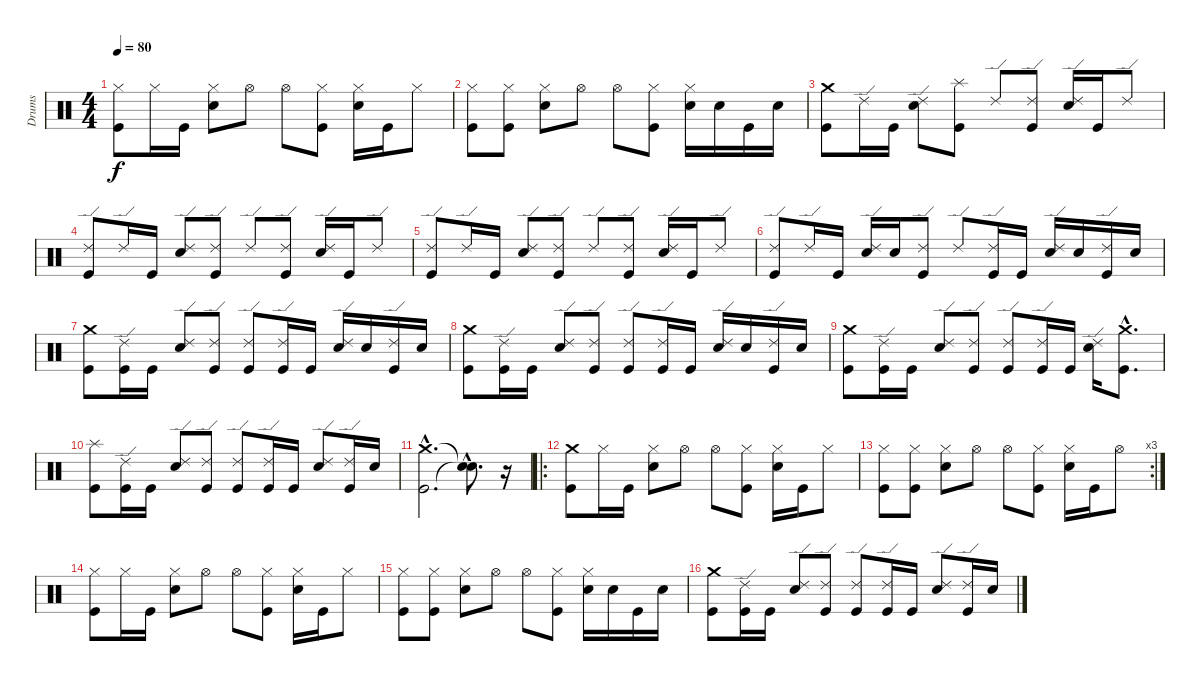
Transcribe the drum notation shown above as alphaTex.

\track ("Drums" "Drums") {instrument percussion}
\staff {score}
\articulation defaults
\ts (4 4)
\tempo 80
\clef neutral
\ks c
("Kick (hit)" "Hi-Hat (closed)").8{dy f} "Hi-Hat (closed)".16 "Kick (hit)".16 ("Electric Snare (hit)" "Hi-Hat (closed)").8 "Hi-Hat (open)".8 "Hi-Hat (open)".8 ("Kick (hit)" "Hi-Hat (closed)").8 ("Electric Snare (hit)" "Hi-Hat (closed)").16 "Kick (hit)".16 "Hi-Hat (closed)".8 |
("Kick (hit)" "Hi-Hat (closed)").8 ("Kick (hit)" "Hi-Hat (closed)").8 ("Electric Snare (hit)" "Hi-Hat (closed)").8 "Hi-Hat (open)".8 "Hi-Hat (open)".8 ("Kick (hit)" "Hi-Hat (closed)").8 ("Electric Snare (hit)" "Hi-Hat (closed)").16 "Electric Snare (hit)".16 "Kick (hit)".16 "Electric Snare (hit)".16 |
("Kick (hit)" "Crash medium (hit)").8 "Ride (edge) 2".16 "Kick (hit)".16 ("Electric Snare (hit)" "Ride (edge) 2").8 ("Kick (hit)" "Splash (hit)").8 "Ride (edge) 2".8 ("Kick (hit)" "Ride (edge) 2").8 ("Electric Snare (hit)" "Ride (edge) 2").16 "Kick (hit)".16 "Ride (edge) 2".8 |
("Kick (hit)" "Ride (edge) 2").8 "Ride (edge) 2".16 "Kick (hit)".16 ("Electric Snare (hit)" "Ride (edge) 2").8 ("Kick (hit)" "Ride (edge) 2").8 "Ride (edge) 2".8 ("Kick (hit)" "Ride (edge) 2").8 ("Electric Snare (hit)" "Ride (edge) 2").16 "Kick (hit)".16 "Ride (edge) 2".8 |
("Kick (hit)" "Ride (edge) 2").8 "Ride (edge) 2".16 "Kick (hit)".16 ("Electric Snare (hit)" "Ride (edge) 2").8 ("Kick (hit)" "Ride (edge) 2").8 "Ride (edge) 2".8 ("Kick (hit)" "Ride (edge) 2").8 ("Electric Snare (hit)" "Ride (edge) 2").16 "Kick (hit)".16 "Ride (edge) 2".8 |
("Kick (hit)" "Ride (edge) 2").8 "Ride (edge) 2".16 "Kick (hit)".16 ("Electric Snare (hit)" "Ride (edge) 2").16 "Electric Snare (hit)".16 ("Kick (hit)" "Ride (edge) 2").8 "Ride (edge) 2".8 ("Kick (hit)" "Ride (edge) 2").16 "Kick (hit)".16 ("Electric Snare (hit)" "Ride (edge) 2").16 "Electric Snare (hit)".16 ("Kick (hit)" "Ride (edge) 2").16 "Electric Snare (hit)".16 |
("Kick (hit)" "Crash medium (hit)").8 ("Kick (hit)" "Ride (edge) 2").16 "Kick (hit)".16 ("Electric Snare (hit)" "Ride (edge) 2").8 ("Kick (hit)" "Ride (edge) 2").8 ("Kick (hit)" "Ride (edge) 2").8 ("Kick (hit)" "Ride (edge) 2").16 "Kick (hit)".16 ("Electric Snare (hit)" "Ride (edge) 2").16 "Electric Snare (hit)".16 ("Kick (hit)" "Ride (edge) 2").16 "Electric Snare (hit)".16 |
("Kick (hit)" "Crash medium (hit)").8 ("Kick (hit)" "Ride (edge) 2").16 "Kick (hit)".16 ("Electric Snare (hit)" "Ride (edge) 2").8 ("Kick (hit)" "Ride (edge) 2").8 ("Kick (hit)" "Ride (edge) 2").8 ("Kick (hit)" "Ride (edge) 2").16 "Kick (hit)".16 ("Electric Snare (hit)" "Ride (edge) 2").16 "Electric Snare (hit)".16 ("Kick (hit)" "Ride (edge) 2").16 "Electric Snare (hit)".16 |
("Kick (hit)" "Crash medium (hit)").8 ("Kick (hit)" "Ride (edge) 2").16 "Kick (hit)".16 ("Electric Snare (hit)" "Ride (edge) 2").8 ("Kick (hit)" "Ride (edge) 2").8 ("Kick (hit)" "Ride (edge) 2").8 ("Kick (hit)" "Ride (edge) 2").16 "Kick (hit)".16 ("Electric Snare (hit)" "Ride (edge) 2").16 ("Kick (hit)"{hac} "Crash medium (hit)"{hac}).8{d} |
("Kick (hit)" "Splash (hit)").8 ("Kick (hit)" "Ride (edge) 2").16 "Kick (hit)".16 ("Electric Snare (hit)" "Ride (edge) 2").8 ("Kick (hit)" "Ride (edge) 2").8 ("Kick (hit)" "Ride (edge) 2").8 ("Kick (hit)" "Ride (edge) 2").16 "Kick (hit)".16 ("Electric Snare (hit)" "Ride (edge) 2").8 ("Kick (hit)" "Ride (edge) 2").16 "Electric Snare (hit)".16 |
("Kick (hit)"{hac} "Crash medium (hit)"{hac}).2{d} ("Snare (hit)"{hac t} "Snare (hit)"{hac t}).8{d} r.16 |
\ro
("Kick (hit)" "Crash medium (hit)").8 "Hi-Hat (closed)".16 "Kick (hit)".16 ("Electric Snare (hit)" "Hi-Hat (closed)").8 "Hi-Hat (open)".8 "Hi-Hat (open)".8 ("Kick (hit)" "Hi-Hat (closed)").8 ("Electric Snare (hit)" "Hi-Hat (closed)").16 "Kick (hit)".16 "Hi-Hat (closed)".8 |
\rc 3
("Kick (hit)" "Hi-Hat (closed)").8 ("Kick (hit)" "Hi-Hat (closed)").8 ("Electric Snare (hit)" "Hi-Hat (closed)").8 "Hi-Hat (open)".8 "Hi-Hat (open)".8 ("Kick (hit)" "Hi-Hat (closed)").8 ("Electric Snare (hit)" "Hi-Hat (closed)").16 "Kick (hit)".16 "Hi-Hat (open)".8 |
("Kick (hit)" "Hi-Hat (closed)").8 "Hi-Hat (closed)".16 "Kick (hit)".16 ("Electric Snare (hit)" "Hi-Hat (closed)").8 "Hi-Hat (open)".8 "Hi-Hat (open)".8 ("Kick (hit)" "Hi-Hat (closed)").8 ("Electric Snare (hit)" "Hi-Hat (closed)").16 "Kick (hit)".16 "Hi-Hat (closed)".8 |
("Kick (hit)" "Hi-Hat (closed)").8 ("Kick (hit)" "Hi-Hat (closed)").8 ("Electric Snare (hit)" "Hi-Hat (closed)").8 "Hi-Hat (open)".8 "Hi-Hat (open)".8 ("Kick (hit)" "Hi-Hat (closed)").8 ("Electric Snare (hit)" "Hi-Hat (closed)").16 "Electric Snare (hit)".16 "Kick (hit)".16 "Electric Snare (hit)".16 |
("Kick (hit)" "Crash medium (hit)").8 ("Kick (hit)" "Ride (edge) 2").16 "Kick (hit)".16 ("Electric Snare (hit)" "Ride (edge) 2").8 ("Kick (hit)" "Ride (edge) 2").8 ("Kick (hit)" "Ride (edge) 2").8 ("Kick (hit)" "Ride (edge) 2").16 "Kick (hit)".16 ("Electric Snare (hit)" "Ride (edge) 2").8 ("Kick (hit)" "Ride (edge) 2").16 "Electric Snare (hit)".16
